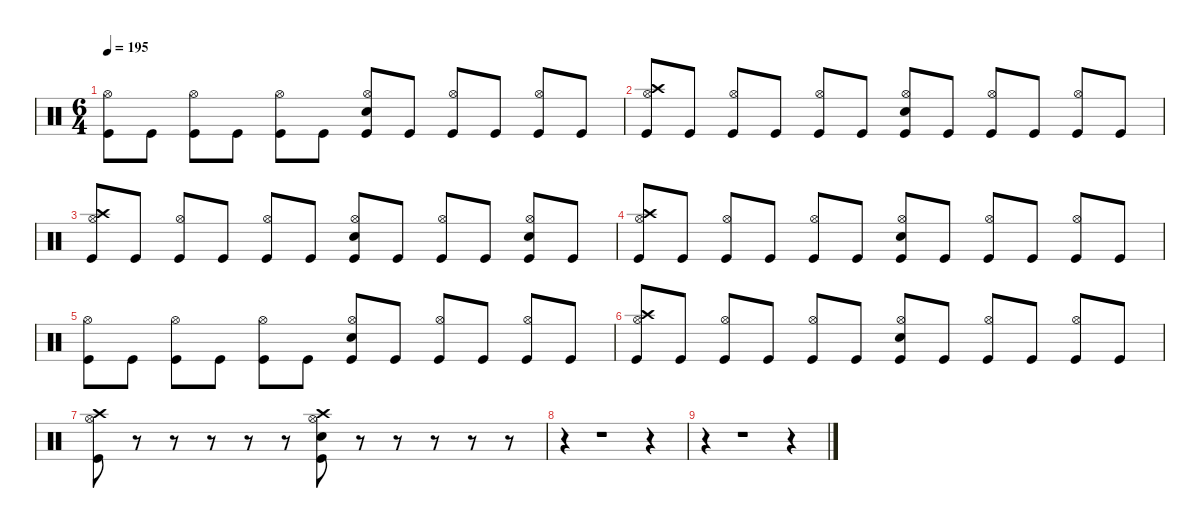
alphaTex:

\defaultSystemsLayout 4
\hideDynamics
\bracketExtendMode nobrackets
\singleTrackTrackNamePolicy hidden
\multiTrackTrackNamePolicy hidden
\firstSystemTrackNameMode fullname
\firstSystemTrackNameOrientation horizontal
\otherSystemsTrackNameOrientation horizontal
\track ("Percussion" "drm.") {instrument percussion}
\staff {score}
\articulation defaults
\ts (6 4)
\tempo 195
\clef neutral
\ks c
("Hi-Hat (open)" "Kick (hit)").8{dy f beam Down} "Kick (hit)".8{beam Down} ("Hi-Hat (open)" "Kick (hit)").8{beam Down} "Kick (hit)".8{beam Down} ("Hi-Hat (open)" "Kick (hit)").8{beam Down} "Kick (hit)".8{beam Down} ("Snare (hit) 2" "Hi-Hat (open)" "Kick (hit)").8{beam Up} "Kick (hit)".8{beam Up} ("Hi-Hat (open)" "Kick (hit)").8{beam Up} "Kick (hit)".8{beam Up} ("Hi-Hat (open)" "Kick (hit)").8{beam Up} "Kick (hit)".8{beam Up} |
("Crash high (hit)" "Hi-Hat (open)" "Kick (hit)").8{beam Up} "Kick (hit)".8{beam Up} ("Hi-Hat (open)" "Kick (hit)").8{beam Up} "Kick (hit)".8{beam Up} ("Hi-Hat (open)" "Kick (hit)").8{beam Up} "Kick (hit)".8{beam Up} ("Snare (hit) 2" "Hi-Hat (open)" "Kick (hit)").8{beam Up} "Kick (hit)".8{beam Up} ("Hi-Hat (open)" "Kick (hit)").8{beam Up} "Kick (hit)".8{beam Up} ("Hi-Hat (open)" "Kick (hit)").8{beam Up} "Kick (hit)".8{beam Up} |
("Crash high (hit)" "Hi-Hat (open)" "Kick (hit)").8{beam Up} "Kick (hit)".8{beam Up} ("Hi-Hat (open)" "Kick (hit)").8{beam Up} "Kick (hit)".8{beam Up} ("Hi-Hat (open)" "Kick (hit)").8{beam Up} "Kick (hit)".8{beam Up} ("Snare (hit) 2" "Hi-Hat (open)" "Kick (hit)").8{beam Up} "Kick (hit)".8{beam Up} ("Hi-Hat (open)" "Kick (hit)").8{beam Up} "Kick (hit)".8{beam Up} ("Snare (hit) 2" "Hi-Hat (open)" "Kick (hit)").8{beam Up} "Kick (hit)".8{beam Up} |
("Crash high (hit)" "Hi-Hat (open)" "Kick (hit)").8{beam Up} "Kick (hit)".8{beam Up} ("Hi-Hat (open)" "Kick (hit)").8{beam Up} "Kick (hit)".8{beam Up} ("Hi-Hat (open)" "Kick (hit)").8{beam Up} "Kick (hit)".8{beam Up} ("Snare (hit) 2" "Hi-Hat (open)" "Kick (hit)").8{beam Up} "Kick (hit)".8{beam Up} ("Hi-Hat (open)" "Kick (hit)").8{beam Up} "Kick (hit)".8{beam Up} ("Hi-Hat (open)" "Kick (hit)").8{beam Up} "Kick (hit)".8{beam Up} |
("Hi-Hat (open)" "Kick (hit)").8{beam Down} "Kick (hit)".8{beam Down} ("Hi-Hat (open)" "Kick (hit)").8{beam Down} "Kick (hit)".8{beam Down} ("Hi-Hat (open)" "Kick (hit)").8{beam Down} "Kick (hit)".8{beam Down} ("Snare (hit) 2" "Hi-Hat (open)" "Kick (hit)").8{beam Up} "Kick (hit)".8{beam Up} ("Hi-Hat (open)" "Kick (hit)").8{beam Up} "Kick (hit)".8{beam Up} ("Hi-Hat (open)" "Kick (hit)").8{beam Up} "Kick (hit)".8{beam Up} |
("Crash high (hit)" "Hi-Hat (open)" "Kick (hit)").8{beam Up} "Kick (hit)".8{beam Up} ("Hi-Hat (open)" "Kick (hit)").8{beam Up} "Kick (hit)".8{beam Up} ("Hi-Hat (open)" "Kick (hit)").8{beam Up} "Kick (hit)".8{beam Up} ("Snare (hit) 2" "Hi-Hat (open)" "Kick (hit)").8{beam Up} "Kick (hit)".8{beam Up} ("Hi-Hat (open)" "Kick (hit)").8{beam Up} "Kick (hit)".8{beam Up} ("Hi-Hat (open)" "Kick (hit)").8{beam Up} "Kick (hit)".8{beam Up} |
("Crash high (hit)" "Hi-Hat (open)" "Kick (hit)").8{beam Down} r.8{beam Down} r.8{beam Down} r.8{beam Down} r.8{beam Down} r.8{beam Down} ("Crash high (hit)" "Snare (hit) 2" "Hi-Hat (open)" "Kick (hit)").8{beam Down} r.8{beam Down} r.8{beam Down} r.8{beam Down} r.8{beam Down} r.8{beam Down} |
r.4{beam Down} r.1{beam Down} r.4{beam Down} |
r.4{beam Down} r.1{beam Down} r.4{beam Down}
